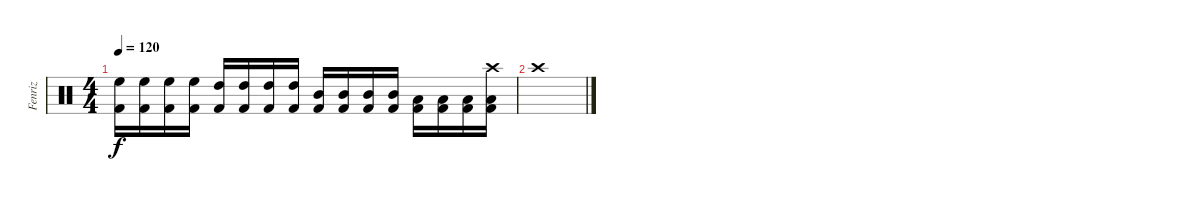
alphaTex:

\track ("Fenriz" "Fenriz") {instrument percussion}
\staff {score}
\articulation defaults
\ts (4 4)
\tempo 120
\clef neutral
\ks c
("Kick (hit) 2" "High Floor Tom (hit)").16{dy f} ("Kick (hit) 2" "High Floor Tom (hit)").16 ("Kick (hit) 2" "High Floor Tom (hit)").16 ("Kick (hit) 2" "High Floor Tom (hit)").16 ("Kick (hit) 2" "High Tom (hit)").16 ("Kick (hit) 2" "High Tom (hit)").16 ("Kick (hit) 2" "High Tom (hit)").16 ("Kick (hit) 2" "High Tom (hit)").16 ("Kick (hit) 2" "Mid Tom (hit)").16 ("Kick (hit) 2" "Mid Tom (hit)").16 ("Kick (hit) 2" "Mid Tom (hit)").16 ("Kick (hit) 2" "Mid Tom (hit)").16 ("Kick (hit) 2" "Low Tom (hit)").16 ("Kick (hit) 2" "Low Tom (hit)").16 ("Kick (hit) 2" "Low Tom (hit)").16 ("Kick (hit) 2" "Low Tom (hit)" "Crash high (hit)").16 |
"Crash high (hit)".1
